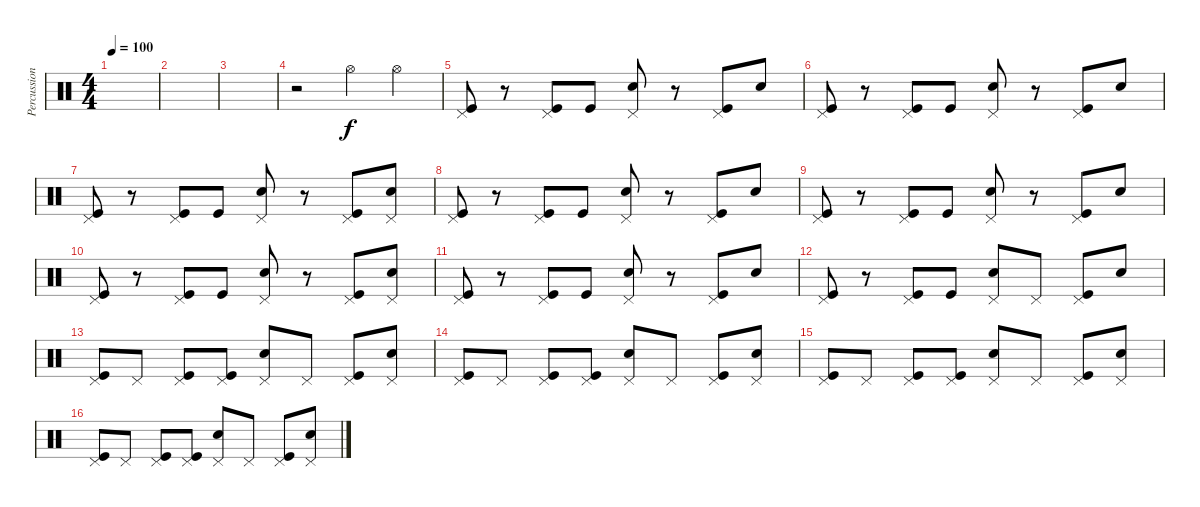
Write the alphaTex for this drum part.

\track ("Percussioni" "Percussion") {instrument percussion}
\staff {score}
\articulation defaults
\ts (4 4)
\tempo 100
\clef neutral
\ks c
|
|
|
r.2 "Hi-Hat (open)".4 "Hi-Hat (open)".4 |
("Pedal Hi-Hat (hit)" "Kick (hit)").8 r.8 ("Pedal Hi-Hat (hit)" "Kick (hit)").8 "Kick (hit)".8 ("Pedal Hi-Hat (hit)" "Snare (hit) 2").8 r.8 ("Pedal Hi-Hat (hit)" "Kick (hit)").8 "Snare (hit) 2".8 |
("Pedal Hi-Hat (hit)" "Kick (hit)").8 r.8 ("Pedal Hi-Hat (hit)" "Kick (hit)").8 "Kick (hit)".8 ("Pedal Hi-Hat (hit)" "Snare (hit) 2").8 r.8 ("Pedal Hi-Hat (hit)" "Kick (hit)").8 "Snare (hit) 2".8 |
("Pedal Hi-Hat (hit)" "Kick (hit)").8 r.8 ("Pedal Hi-Hat (hit)" "Kick (hit)").8 "Kick (hit)".8 ("Pedal Hi-Hat (hit)" "Snare (hit) 2").8 r.8 ("Pedal Hi-Hat (hit)" "Kick (hit)").8 ("Pedal Hi-Hat (hit)" "Snare (hit) 2").8 |
("Pedal Hi-Hat (hit)" "Kick (hit)").8 r.8 ("Pedal Hi-Hat (hit)" "Kick (hit)").8 "Kick (hit)".8 ("Pedal Hi-Hat (hit)" "Snare (hit) 2").8 r.8 ("Pedal Hi-Hat (hit)" "Kick (hit)").8 "Snare (hit) 2".8 |
("Pedal Hi-Hat (hit)" "Kick (hit)").8 r.8 ("Pedal Hi-Hat (hit)" "Kick (hit)").8 "Kick (hit)".8 ("Pedal Hi-Hat (hit)" "Snare (hit) 2").8 r.8 ("Pedal Hi-Hat (hit)" "Kick (hit)").8 "Snare (hit) 2".8 |
("Pedal Hi-Hat (hit)" "Kick (hit)").8 r.8 ("Pedal Hi-Hat (hit)" "Kick (hit)").8 "Kick (hit)".8 ("Pedal Hi-Hat (hit)" "Snare (hit) 2").8 r.8 ("Pedal Hi-Hat (hit)" "Kick (hit)").8 ("Pedal Hi-Hat (hit)" "Snare (hit) 2").8 |
("Pedal Hi-Hat (hit)" "Kick (hit)").8 r.8 ("Pedal Hi-Hat (hit)" "Kick (hit)").8 "Kick (hit)".8 ("Pedal Hi-Hat (hit)" "Snare (hit) 2").8 r.8 ("Pedal Hi-Hat (hit)" "Kick (hit)").8 "Snare (hit) 2".8 |
("Pedal Hi-Hat (hit)" "Kick (hit)").8 r.8 ("Pedal Hi-Hat (hit)" "Kick (hit)").8 "Kick (hit)".8 ("Pedal Hi-Hat (hit)" "Snare (hit) 2").8 "Pedal Hi-Hat (hit)".8 ("Pedal Hi-Hat (hit)" "Kick (hit)").8 "Snare (hit) 2".8 |
("Pedal Hi-Hat (hit)" "Kick (hit)").8 "Pedal Hi-Hat (hit)".8 ("Pedal Hi-Hat (hit)" "Kick (hit)").8 ("Pedal Hi-Hat (hit)" "Kick (hit)").8 ("Pedal Hi-Hat (hit)" "Snare (hit) 2").8 "Pedal Hi-Hat (hit)".8 ("Pedal Hi-Hat (hit)" "Kick (hit)").8 ("Pedal Hi-Hat (hit)" "Snare (hit) 2").8 |
("Pedal Hi-Hat (hit)" "Kick (hit)").8 "Pedal Hi-Hat (hit)".8 ("Pedal Hi-Hat (hit)" "Kick (hit)").8 ("Pedal Hi-Hat (hit)" "Kick (hit)").8 ("Pedal Hi-Hat (hit)" "Snare (hit) 2").8 "Pedal Hi-Hat (hit)".8 ("Pedal Hi-Hat (hit)" "Kick (hit)").8 ("Pedal Hi-Hat (hit)" "Snare (hit) 2").8 |
("Pedal Hi-Hat (hit)" "Kick (hit)").8 "Pedal Hi-Hat (hit)".8 ("Pedal Hi-Hat (hit)" "Kick (hit)").8 ("Pedal Hi-Hat (hit)" "Kick (hit)").8 ("Pedal Hi-Hat (hit)" "Snare (hit) 2").8 "Pedal Hi-Hat (hit)".8 ("Pedal Hi-Hat (hit)" "Kick (hit)").8 ("Pedal Hi-Hat (hit)" "Snare (hit) 2").8 |
("Pedal Hi-Hat (hit)" "Kick (hit)").8 "Pedal Hi-Hat (hit)".8 ("Pedal Hi-Hat (hit)" "Kick (hit)").8 ("Pedal Hi-Hat (hit)" "Kick (hit)").8 ("Pedal Hi-Hat (hit)" "Snare (hit) 2").8 "Pedal Hi-Hat (hit)".8 ("Pedal Hi-Hat (hit)" "Kick (hit)").8 ("Pedal Hi-Hat (hit)" "Snare (hit) 2").8
